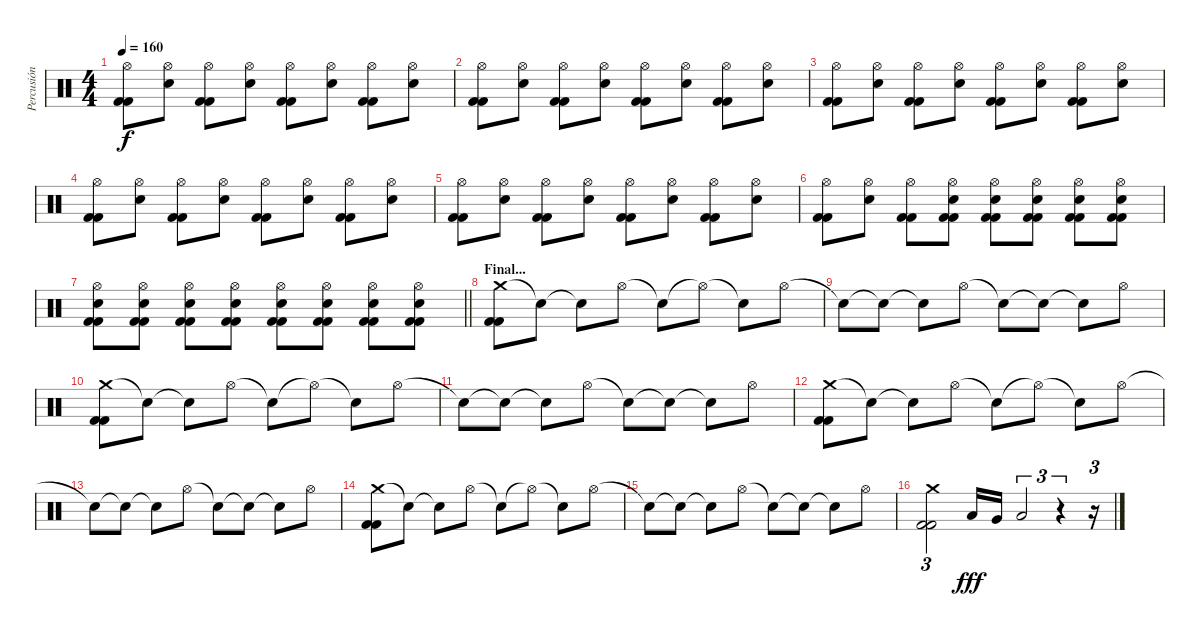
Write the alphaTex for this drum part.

\track ("Percusión" "Percusión") {instrument percussion}
\staff {score}
\articulation defaults
\ts (4 4)
\tempo 160
\clef neutral
\ks c
("Hi-Hat (open)" "Kick (hit) 2" "Kick (hit) 2").8{dy f} ("Hi-Hat (open)" "Electric Snare (hit)").8 ("Hi-Hat (open)" "Kick (hit) 2" "Kick (hit) 2").8 ("Hi-Hat (open)" "Electric Snare (hit)").8 ("Hi-Hat (open)" "Kick (hit) 2" "Kick (hit) 2").8 ("Hi-Hat (open)" "Electric Snare (hit)").8 ("Hi-Hat (open)" "Kick (hit) 2" "Kick (hit) 2").8 ("Hi-Hat (open)" "Electric Snare (hit)").8 |
("Hi-Hat (open)" "Kick (hit) 2" "Kick (hit) 2").8 ("Hi-Hat (open)" "Electric Snare (hit)").8 ("Hi-Hat (open)" "Kick (hit) 2" "Kick (hit) 2").8 ("Hi-Hat (open)" "Electric Snare (hit)").8 ("Hi-Hat (open)" "Kick (hit) 2" "Kick (hit) 2").8 ("Hi-Hat (open)" "Electric Snare (hit)").8 ("Hi-Hat (open)" "Kick (hit) 2" "Kick (hit) 2").8 ("Hi-Hat (open)" "Electric Snare (hit)").8 |
("Hi-Hat (open)" "Kick (hit) 2" "Kick (hit) 2").8 ("Hi-Hat (open)" "Electric Snare (hit)").8 ("Hi-Hat (open)" "Kick (hit) 2" "Kick (hit) 2").8 ("Hi-Hat (open)" "Electric Snare (hit)").8 ("Hi-Hat (open)" "Kick (hit) 2" "Kick (hit) 2").8 ("Hi-Hat (open)" "Electric Snare (hit)").8 ("Hi-Hat (open)" "Kick (hit) 2" "Kick (hit) 2").8 ("Hi-Hat (open)" "Electric Snare (hit)").8 |
("Hi-Hat (open)" "Kick (hit) 2" "Kick (hit) 2").8 ("Hi-Hat (open)" "Electric Snare (hit)").8 ("Hi-Hat (open)" "Kick (hit) 2" "Kick (hit) 2").8 ("Hi-Hat (open)" "Electric Snare (hit)").8 ("Hi-Hat (open)" "Kick (hit) 2" "Kick (hit) 2").8 ("Hi-Hat (open)" "Electric Snare (hit)").8 ("Hi-Hat (open)" "Kick (hit) 2" "Kick (hit) 2").8 ("Hi-Hat (open)" "Electric Snare (hit)").8 |
("Hi-Hat (open)" "Kick (hit) 2" "Kick (hit) 2").8 ("Hi-Hat (open)" "Electric Snare (hit)").8 ("Hi-Hat (open)" "Kick (hit) 2" "Kick (hit) 2").8 ("Hi-Hat (open)" "Electric Snare (hit)").8 ("Hi-Hat (open)" "Kick (hit) 2" "Kick (hit) 2").8 ("Hi-Hat (open)" "Electric Snare (hit)").8 ("Hi-Hat (open)" "Kick (hit) 2" "Kick (hit) 2").8 ("Hi-Hat (open)" "Electric Snare (hit)").8 |
("Hi-Hat (open)" "Kick (hit) 2" "Kick (hit) 2").8 ("Hi-Hat (open)" "Electric Snare (hit)").8 ("Hi-Hat (open)" "Kick (hit) 2" "Kick (hit) 2").8 ("Hi-Hat (open)" "Electric Snare (hit)" "Kick (hit) 2" "Kick (hit) 2").8 ("Hi-Hat (open)" "Electric Snare (hit)" "Kick (hit) 2" "Kick (hit) 2").8 ("Hi-Hat (open)" "Electric Snare (hit)" "Kick (hit) 2" "Kick (hit) 2").8 ("Hi-Hat (open)" "Electric Snare (hit)" "Kick (hit) 2" "Kick (hit) 2").8 ("Hi-Hat (open)" "Electric Snare (hit)" "Kick (hit) 2" "Kick (hit) 2").8 |
\barLineRight lightlight
("Hi-Hat (open)" "Electric Snare (hit)" "Kick (hit) 2" "Kick (hit) 2").8 ("Hi-Hat (open)" "Electric Snare (hit)" "Kick (hit) 2" "Kick (hit) 2").8 ("Hi-Hat (open)" "Electric Snare (hit)" "Kick (hit) 2" "Kick (hit) 2").8 ("Hi-Hat (open)" "Electric Snare (hit)" "Kick (hit) 2" "Kick (hit) 2").8 ("Hi-Hat (open)" "Electric Snare (hit)" "Kick (hit) 2" "Kick (hit) 2").8 ("Hi-Hat (open)" "Electric Snare (hit)" "Kick (hit) 2" "Kick (hit) 2").8 ("Hi-Hat (open)" "Electric Snare (hit)" "Kick (hit) 2" "Kick (hit) 2").8 ("Hi-Hat (open)" "Electric Snare (hit)" "Kick (hit) 2" "Kick (hit) 2").8 |
\section ("" "Final...")
("Crash medium (hit)" "Kick (hit) 2" "Kick (hit) 2").8 "Snare (hit)"{t}.8 "Snare (hit)"{t}.8 "Hi-Hat (open)".8 "Snare (hit)"{t}.8 "Hi-Hat (open)"{t}.8 "Snare (hit)"{t}.8 "Hi-Hat (open)".8 |
"Snare (hit)"{t}.8 "Snare (hit)"{t}.8 "Snare (hit)"{t}.8 "Hi-Hat (open)".8 "Snare (hit)"{t}.8 "Snare (hit)"{t}.8 "Snare (hit)"{t}.8 "Hi-Hat (open)".8 |
("Crash medium (hit)" "Kick (hit) 2" "Kick (hit) 2").8 "Snare (hit)"{t}.8 "Snare (hit)"{t}.8 "Hi-Hat (open)".8 "Snare (hit)"{t}.8 "Hi-Hat (open)"{t}.8 "Snare (hit)"{t}.8 "Hi-Hat (open)".8 |
"Snare (hit)"{t}.8 "Snare (hit)"{t}.8 "Snare (hit)"{t}.8 "Hi-Hat (open)".8 "Snare (hit)"{t}.8 "Snare (hit)"{t}.8 "Snare (hit)"{t}.8 "Hi-Hat (open)".8 |
("Crash medium (hit)" "Kick (hit) 2" "Kick (hit) 2").8 "Snare (hit)"{t}.8 "Snare (hit)"{t}.8 "Hi-Hat (open)".8 "Snare (hit)"{t}.8 "Hi-Hat (open)"{t}.8 "Snare (hit)"{t}.8 "Hi-Hat (open)".8 |
"Snare (hit)"{t}.8 "Snare (hit)"{t}.8 "Snare (hit)"{t}.8 "Hi-Hat (open)".8 "Snare (hit)"{t}.8 "Snare (hit)"{t}.8 "Snare (hit)"{t}.8 "Hi-Hat (open)".8 |
("Crash medium (hit)" "Kick (hit) 2" "Kick (hit) 2").8 "Snare (hit)"{t}.8 "Snare (hit)"{t}.8 "Hi-Hat (open)".8 "Snare (hit)"{t}.8 "Hi-Hat (open)"{t}.8 "Snare (hit)"{t}.8 "Hi-Hat (open)".8 |
"Snare (hit)"{t}.8 "Snare (hit)"{t}.8 "Snare (hit)"{t}.8 "Hi-Hat (open)".8 "Snare (hit)"{t}.8 "Snare (hit)"{t}.8 "Snare (hit)"{t}.8 "Hi-Hat (open)".8 |
("Crash medium (hit)" "Kick (hit) 2" "Kick (hit) 2").2{tu (3 2)} "Low Tom (hit)".16{dy fff} "Very Low Tom (hit)".16 "Low Floor Tom (hit)".2{tu (3 2)} r.4{tu (3 2)} r.16{tu (3 2)}
